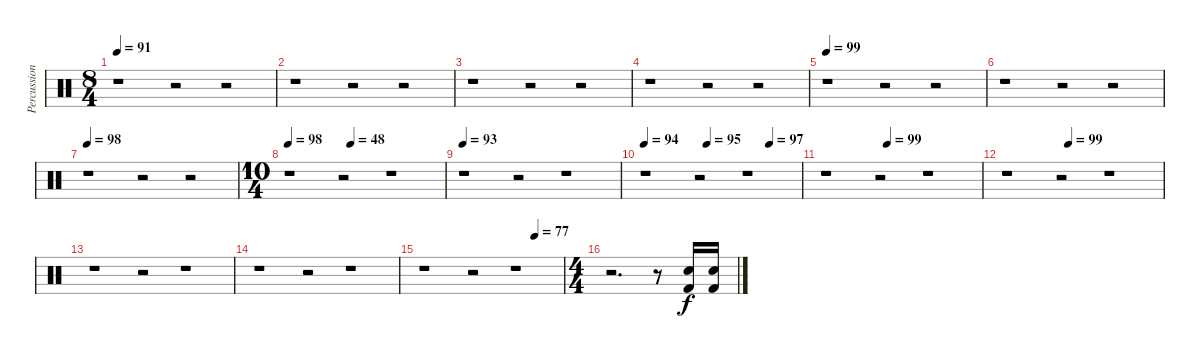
\track ("Percussion" "Percussion") {instrument percussion}
\staff {score}
\articulation defaults
\ts (8 4)
\tempo 91
\clef neutral
\ks c
r.1{dy f} r.2 r.2 |
r.1 r.2 r.2 |
r.1 r.2 r.2 |
r.1 r.2 r.2 |
\tempo 99
r.1 r.2 r.2 |
r.1 r.2 r.2 |
\tempo 98
r.1 r.2 r.2 |
\ts (10 4)
\tempo 98
\tempo (48 0.4)
r.1 r.2 r.1 |
\tempo 93
r.1 r.2 r.1 |
\tempo 94
\tempo (95 0.4)
\tempo (97 0.8)
r.1 r.2 r.1 |
\tempo (99 0.4)
r.1 r.2 r.1 |
\tempo (99 0.4)
r.1 r.2 r.1 |
r.1 r.2 r.1 |
r.1 r.2 r.1 |
\tempo (77 0.8)
r.1 r.2 r.1 |
\ts (4 4)
r.2{d} r.8 ("Kick (hit) 2" "Electric Snare (hit)").16 ("Kick (hit) 2" "Electric Snare (hit)").16
